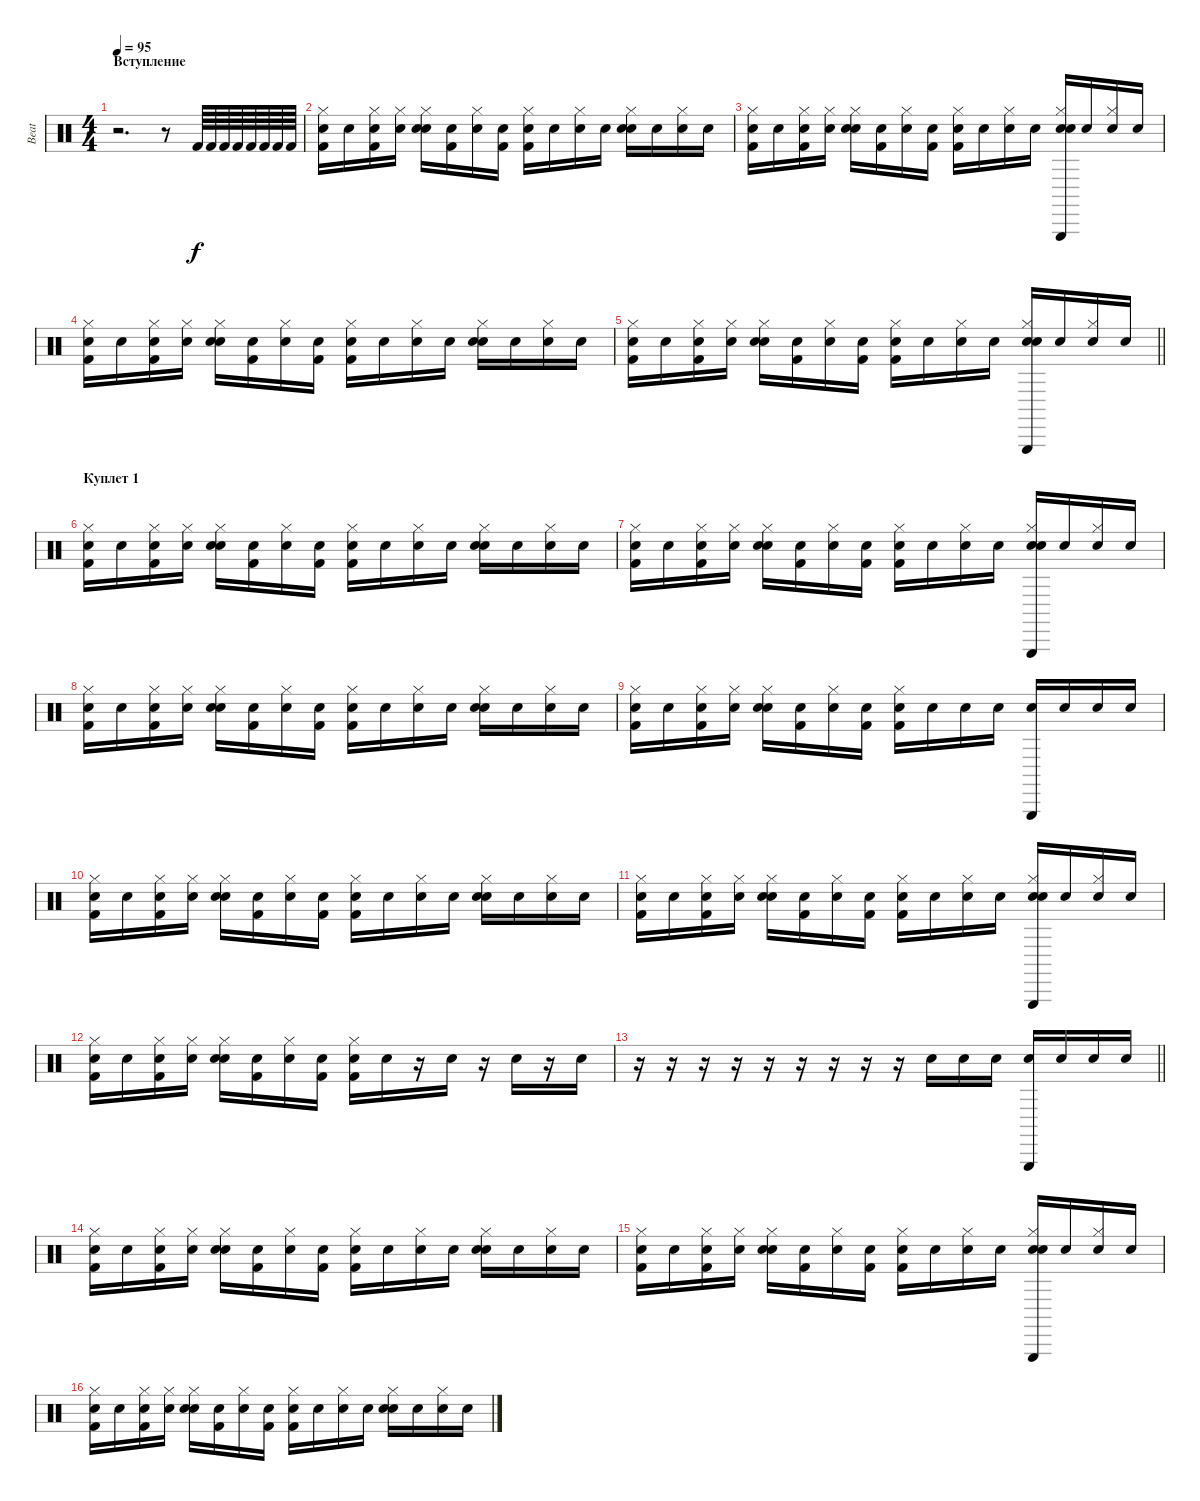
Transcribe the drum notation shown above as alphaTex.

\track ("Beat" "Beat") {instrument percussion}
\staff {score}
\articulation defaults
\ts (4 4)
\section ("" "Вступление")
\tempo 95
\clef neutral
\ks c
r.2{d dy f} r.8 "Kick (hit) 2".64 "Kick (hit) 2".64 "Kick (hit) 2".64 "Kick (hit) 2".64 "Kick (hit) 2".64 "Kick (hit) 2".64 "Kick (hit) 2".64 "Kick (hit) 2".64 |
("Snare (hit)"{x} "Kick (hit) 2" "Hi-Hat (closed)").16 "Snare (hit)"{x}.16 ("Snare (hit)"{x} "Kick (hit) 2" "Hi-Hat (closed)").16 ("Snare (hit)"{x} "Hi-Hat (closed)").16 ("Snare (hit)"{x} "Electric Snare (hit)" "Hi-Hat (closed)").16 ("Snare (hit)"{x} "Kick (hit) 2").16 ("Snare (hit)"{x} "Hi-Hat (closed)").16 ("Snare (hit)"{x} "Kick (hit) 2").16 ("Snare (hit)"{x} "Kick (hit) 2" "Hi-Hat (closed)").16 "Snare (hit)"{x}.16 ("Snare (hit)"{x} "Hi-Hat (closed)").16 "Snare (hit)"{x}.16 ("Snare (hit)"{x} "Electric Snare (hit)" "Hi-Hat (closed)").16 "Snare (hit)"{x}.16 ("Snare (hit)"{x} "Hi-Hat (closed)").16 "Snare (hit)"{x}.16 |
("Snare (hit)"{x} "Kick (hit) 2" "Hi-Hat (closed)").16 "Snare (hit)"{x}.16 ("Snare (hit)"{x} "Kick (hit) 2" "Hi-Hat (closed)").16 ("Snare (hit)"{x} "Hi-Hat (closed)").16 ("Snare (hit)"{x} "Electric Snare (hit)" "Hi-Hat (closed)").16 ("Snare (hit)"{x} "Kick (hit) 2").16 ("Snare (hit)"{x} "Hi-Hat (closed)").16 ("Snare (hit)"{x} "Kick (hit) 2").16 ("Snare (hit)"{x} "Kick (hit) 2" "Hi-Hat (closed)").16 "Snare (hit)"{x}.16 ("Snare (hit)"{x} "Hi-Hat (closed)").16 "Snare (hit)"{x}.16 ("Snare (hit)"{x} "Triangle (hit)" "Electric Snare (hit)" "Hi-Hat (closed)").16 "Snare (hit)"{x}.16 ("Snare (hit)"{x} "Hi-Hat (closed)").16 "Snare (hit)"{x}.16 |
("Snare (hit)"{x} "Kick (hit) 2" "Hi-Hat (closed)").16 "Snare (hit)"{x}.16 ("Snare (hit)"{x} "Kick (hit) 2" "Hi-Hat (closed)").16 ("Snare (hit)"{x} "Hi-Hat (closed)").16 ("Snare (hit)"{x} "Electric Snare (hit)" "Hi-Hat (closed)").16 ("Snare (hit)"{x} "Kick (hit) 2").16 ("Snare (hit)"{x} "Hi-Hat (closed)").16 ("Snare (hit)"{x} "Kick (hit) 2").16 ("Snare (hit)"{x} "Kick (hit) 2" "Hi-Hat (closed)").16 "Snare (hit)"{x}.16 ("Snare (hit)"{x} "Hi-Hat (closed)").16 "Snare (hit)"{x}.16 ("Snare (hit)"{x} "Electric Snare (hit)" "Hi-Hat (closed)").16 "Snare (hit)"{x}.16 ("Snare (hit)"{x} "Hi-Hat (closed)").16 "Snare (hit)"{x}.16 |
\barLineRight lightlight
("Snare (hit)"{x} "Kick (hit) 2" "Hi-Hat (closed)").16 "Snare (hit)"{x}.16 ("Snare (hit)"{x} "Kick (hit) 2" "Hi-Hat (closed)").16 ("Snare (hit)"{x} "Hi-Hat (closed)").16 ("Snare (hit)"{x} "Electric Snare (hit)" "Hi-Hat (closed)").16 ("Snare (hit)"{x} "Kick (hit) 2").16 ("Snare (hit)"{x} "Hi-Hat (closed)").16 ("Snare (hit)"{x} "Kick (hit) 2").16 ("Snare (hit)"{x} "Kick (hit) 2" "Hi-Hat (closed)").16 "Snare (hit)"{x}.16 ("Snare (hit)"{x} "Hi-Hat (closed)").16 "Snare (hit)"{x}.16 ("Snare (hit)"{x} "Triangle (hit)" "Electric Snare (hit)" "Hi-Hat (closed)").16 "Snare (hit)"{x}.16 ("Snare (hit)"{x} "Hi-Hat (closed)").16 "Snare (hit)"{x}.16 |
\section ("" "Куплет 1")
("Snare (hit)"{x} "Kick (hit) 2" "Hi-Hat (closed)").16 "Snare (hit)"{x}.16 ("Snare (hit)"{x} "Kick (hit) 2" "Hi-Hat (closed)").16 ("Snare (hit)"{x} "Hi-Hat (closed)").16 ("Snare (hit)"{x} "Electric Snare (hit)" "Hi-Hat (closed)").16 ("Snare (hit)"{x} "Kick (hit) 2").16 ("Snare (hit)"{x} "Hi-Hat (closed)").16 ("Snare (hit)"{x} "Kick (hit) 2").16 ("Snare (hit)"{x} "Kick (hit) 2" "Hi-Hat (closed)").16 "Snare (hit)"{x}.16 ("Snare (hit)"{x} "Hi-Hat (closed)").16 "Snare (hit)"{x}.16 ("Snare (hit)"{x} "Electric Snare (hit)" "Hi-Hat (closed)").16 "Snare (hit)"{x}.16 ("Snare (hit)"{x} "Hi-Hat (closed)").16 "Snare (hit)"{x}.16 |
("Snare (hit)"{x} "Kick (hit) 2" "Hi-Hat (closed)").16 "Snare (hit)"{x}.16 ("Snare (hit)"{x} "Kick (hit) 2" "Hi-Hat (closed)").16 ("Snare (hit)"{x} "Hi-Hat (closed)").16 ("Snare (hit)"{x} "Electric Snare (hit)" "Hi-Hat (closed)").16 ("Snare (hit)"{x} "Kick (hit) 2").16 ("Snare (hit)"{x} "Hi-Hat (closed)").16 ("Snare (hit)"{x} "Kick (hit) 2").16 ("Snare (hit)"{x} "Kick (hit) 2" "Hi-Hat (closed)").16 "Snare (hit)"{x}.16 ("Snare (hit)"{x} "Hi-Hat (closed)").16 "Snare (hit)"{x}.16 ("Snare (hit)"{x} "Triangle (hit)" "Electric Snare (hit)" "Hi-Hat (closed)").16 "Snare (hit)"{x}.16 ("Snare (hit)"{x} "Hi-Hat (closed)").16 "Snare (hit)"{x}.16 |
("Snare (hit)"{x} "Kick (hit) 2" "Hi-Hat (closed)").16 "Snare (hit)"{x}.16 ("Snare (hit)"{x} "Kick (hit) 2" "Hi-Hat (closed)").16 ("Snare (hit)"{x} "Hi-Hat (closed)").16 ("Snare (hit)"{x} "Electric Snare (hit)" "Hi-Hat (closed)").16 ("Snare (hit)"{x} "Kick (hit) 2").16 ("Snare (hit)"{x} "Hi-Hat (closed)").16 ("Snare (hit)"{x} "Kick (hit) 2").16 ("Snare (hit)"{x} "Kick (hit) 2" "Hi-Hat (closed)").16 "Snare (hit)"{x}.16 ("Snare (hit)"{x} "Hi-Hat (closed)").16 "Snare (hit)"{x}.16 ("Snare (hit)"{x} "Electric Snare (hit)" "Hi-Hat (closed)").16 "Snare (hit)"{x}.16 ("Snare (hit)"{x} "Hi-Hat (closed)").16 "Snare (hit)"{x}.16 |
("Snare (hit)"{x} "Kick (hit) 2" "Hi-Hat (closed)").16 "Snare (hit)"{x}.16 ("Snare (hit)"{x} "Kick (hit) 2" "Hi-Hat (closed)").16 ("Snare (hit)"{x} "Hi-Hat (closed)").16 ("Snare (hit)"{x} "Electric Snare (hit)" "Hi-Hat (closed)").16 ("Snare (hit)"{x} "Kick (hit) 2").16 ("Snare (hit)"{x} "Hi-Hat (closed)").16 ("Snare (hit)"{x} "Kick (hit) 2").16 ("Snare (hit)"{x} "Kick (hit) 2" "Hi-Hat (closed)").16 "Snare (hit)"{x}.16 "Snare (hit)"{x}.16 "Snare (hit)"{x}.16 ("Snare (hit)"{x} "Triangle (hit)").16 "Snare (hit)"{x}.16 "Snare (hit)"{x}.16 "Snare (hit)"{x}.16 |
("Snare (hit)"{x} "Kick (hit) 2" "Hi-Hat (closed)").16 "Snare (hit)"{x}.16 ("Snare (hit)"{x} "Kick (hit) 2" "Hi-Hat (closed)").16 ("Snare (hit)"{x} "Hi-Hat (closed)").16 ("Snare (hit)"{x} "Electric Snare (hit)" "Hi-Hat (closed)").16 ("Snare (hit)"{x} "Kick (hit) 2").16 ("Snare (hit)"{x} "Hi-Hat (closed)").16 ("Snare (hit)"{x} "Kick (hit) 2").16 ("Snare (hit)"{x} "Kick (hit) 2" "Hi-Hat (closed)").16 "Snare (hit)"{x}.16 ("Snare (hit)"{x} "Hi-Hat (closed)").16 "Snare (hit)"{x}.16 ("Snare (hit)"{x} "Electric Snare (hit)" "Hi-Hat (closed)").16 "Snare (hit)"{x}.16 ("Snare (hit)"{x} "Hi-Hat (closed)").16 "Snare (hit)"{x}.16 |
("Snare (hit)"{x} "Kick (hit) 2" "Hi-Hat (closed)").16 "Snare (hit)"{x}.16 ("Snare (hit)"{x} "Kick (hit) 2" "Hi-Hat (closed)").16 ("Snare (hit)"{x} "Hi-Hat (closed)").16 ("Snare (hit)"{x} "Electric Snare (hit)" "Hi-Hat (closed)").16 ("Snare (hit)"{x} "Kick (hit) 2").16 ("Snare (hit)"{x} "Hi-Hat (closed)").16 ("Snare (hit)"{x} "Kick (hit) 2").16 ("Snare (hit)"{x} "Kick (hit) 2" "Hi-Hat (closed)").16 "Snare (hit)"{x}.16 ("Snare (hit)"{x} "Hi-Hat (closed)").16 "Snare (hit)"{x}.16 ("Snare (hit)"{x} "Triangle (hit)" "Electric Snare (hit)" "Hi-Hat (closed)").16 "Snare (hit)"{x}.16 ("Snare (hit)"{x} "Hi-Hat (closed)").16 "Snare (hit)"{x}.16 |
("Snare (hit)"{x} "Kick (hit) 2" "Hi-Hat (closed)").16 "Snare (hit)"{x}.16 ("Snare (hit)"{x} "Kick (hit) 2" "Hi-Hat (closed)").16 ("Snare (hit)"{x} "Hi-Hat (closed)").16 ("Snare (hit)"{x} "Electric Snare (hit)" "Hi-Hat (closed)").16 ("Snare (hit)"{x} "Kick (hit) 2").16 ("Snare (hit)"{x} "Hi-Hat (closed)").16 ("Snare (hit)"{x} "Kick (hit) 2").16 ("Snare (hit)"{x} "Kick (hit) 2" "Hi-Hat (closed)").16 "Snare (hit)"{x}.16 r.16 "Snare (hit)"{x}.16 r.16 "Snare (hit)"{x}.16 r.16 "Snare (hit)"{x}.16 |
\barLineRight lightlight
r.16 r.16 r.16 r.16 r.16 r.16 r.16 r.16 r.16 "Snare (hit)"{x}.16 "Snare (hit)"{x}.16 "Snare (hit)"{x}.16 ("Snare (hit)"{x} "Triangle (hit)").16 "Snare (hit)"{x}.16 "Snare (hit)"{x}.16 "Snare (hit)"{x}.16 |
\section ("" "")
("Snare (hit)"{x} "Kick (hit) 2" "Hi-Hat (closed)").16 "Snare (hit)"{x}.16 ("Snare (hit)"{x} "Kick (hit) 2" "Hi-Hat (closed)").16 ("Snare (hit)"{x} "Hi-Hat (closed)").16 ("Snare (hit)"{x} "Electric Snare (hit)" "Hi-Hat (closed)").16 ("Snare (hit)"{x} "Kick (hit) 2").16 ("Snare (hit)"{x} "Hi-Hat (closed)").16 ("Snare (hit)"{x} "Kick (hit) 2").16 ("Snare (hit)"{x} "Kick (hit) 2" "Hi-Hat (closed)").16 "Snare (hit)"{x}.16 ("Snare (hit)"{x} "Hi-Hat (closed)").16 "Snare (hit)"{x}.16 ("Snare (hit)"{x} "Electric Snare (hit)" "Hi-Hat (closed)").16 "Snare (hit)"{x}.16 ("Snare (hit)"{x} "Hi-Hat (closed)").16 "Snare (hit)"{x}.16 |
("Snare (hit)"{x} "Kick (hit) 2" "Hi-Hat (closed)").16 "Snare (hit)"{x}.16 ("Snare (hit)"{x} "Kick (hit) 2" "Hi-Hat (closed)").16 ("Snare (hit)"{x} "Hi-Hat (closed)").16 ("Snare (hit)"{x} "Electric Snare (hit)" "Hi-Hat (closed)").16 ("Snare (hit)"{x} "Kick (hit) 2").16 ("Snare (hit)"{x} "Hi-Hat (closed)").16 ("Snare (hit)"{x} "Kick (hit) 2").16 ("Snare (hit)"{x} "Kick (hit) 2" "Hi-Hat (closed)").16 "Snare (hit)"{x}.16 ("Snare (hit)"{x} "Hi-Hat (closed)").16 "Snare (hit)"{x}.16 ("Snare (hit)"{x} "Triangle (hit)" "Electric Snare (hit)" "Hi-Hat (closed)").16 "Snare (hit)"{x}.16 ("Snare (hit)"{x} "Hi-Hat (closed)").16 "Snare (hit)"{x}.16 |
("Snare (hit)"{x} "Kick (hit) 2" "Hi-Hat (closed)").16 "Snare (hit)"{x}.16 ("Snare (hit)"{x} "Kick (hit) 2" "Hi-Hat (closed)").16 ("Snare (hit)"{x} "Hi-Hat (closed)").16 ("Snare (hit)"{x} "Electric Snare (hit)" "Hi-Hat (closed)").16 ("Snare (hit)"{x} "Kick (hit) 2").16 ("Snare (hit)"{x} "Hi-Hat (closed)").16 ("Snare (hit)"{x} "Kick (hit) 2").16 ("Snare (hit)"{x} "Kick (hit) 2" "Hi-Hat (closed)").16 "Snare (hit)"{x}.16 ("Snare (hit)"{x} "Hi-Hat (closed)").16 "Snare (hit)"{x}.16 ("Snare (hit)"{x} "Electric Snare (hit)" "Hi-Hat (closed)").16 "Snare (hit)"{x}.16 ("Snare (hit)"{x} "Hi-Hat (closed)").16 "Snare (hit)"{x}.16
